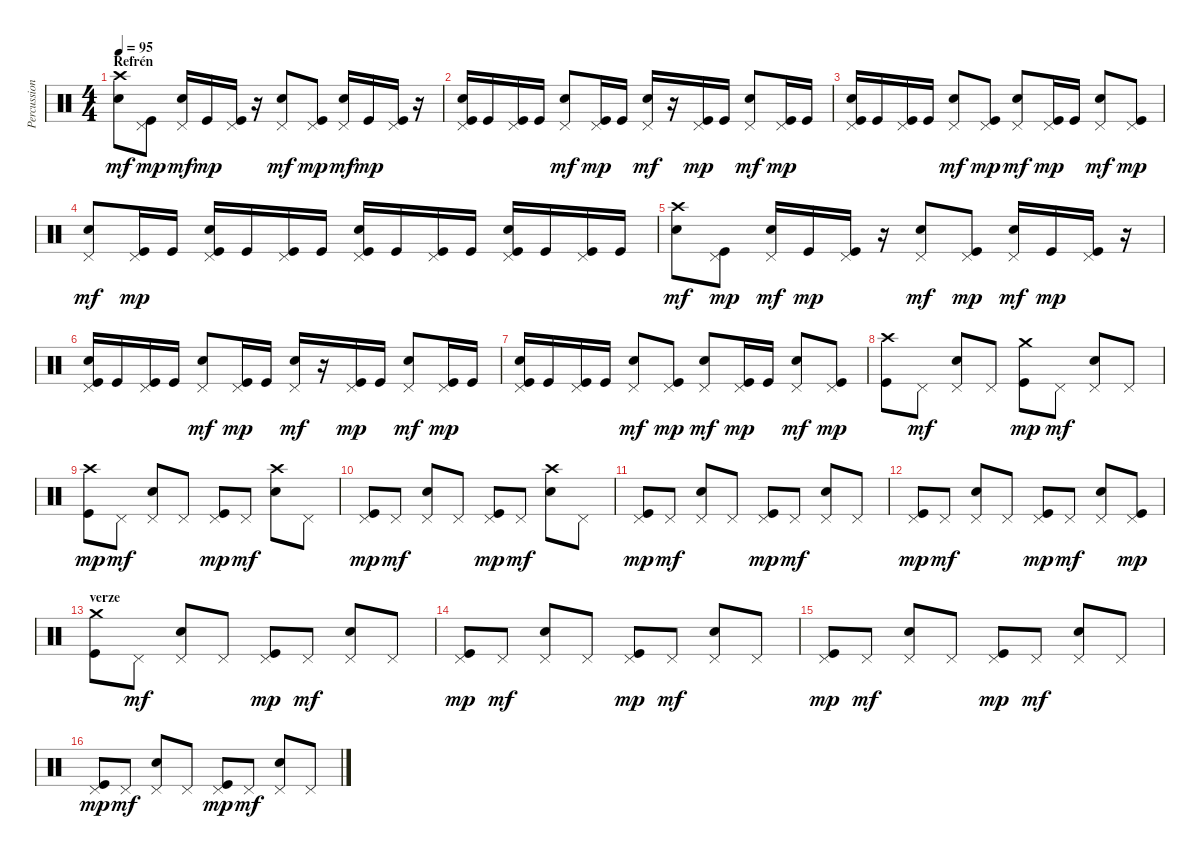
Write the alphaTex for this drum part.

\track ("Percussion" "Percussion") {instrument percussion}
\staff {score}
\articulation defaults
\ts (4 4)
\section ("" "Refrén")
\tempo 95
\clef neutral
\ks c
("Crash high (hit)" "Electric Snare (hit)").8{dy mf} ("Pedal Hi-Hat (hit)" "Kick (hit)").8{dy mp} ("Pedal Hi-Hat (hit)" "Electric Snare (hit)").16{dy mf} "Kick (hit)".16{dy mp} ("Pedal Hi-Hat (hit)" "Kick (hit)").16 r.16 ("Pedal Hi-Hat (hit)" "Electric Snare (hit)").8{dy mf} ("Pedal Hi-Hat (hit)" "Kick (hit)").8{dy mp} ("Pedal Hi-Hat (hit)" "Electric Snare (hit)").16{dy mf} "Kick (hit)".16{dy mp} ("Pedal Hi-Hat (hit)" "Kick (hit)").16 r.16 |
("Pedal Hi-Hat (hit)" "Kick (hit)" "Electric Snare (hit)").16 "Kick (hit)".16 ("Pedal Hi-Hat (hit)" "Kick (hit)").16 "Kick (hit)".16 ("Pedal Hi-Hat (hit)" "Electric Snare (hit)").8{dy mf} ("Pedal Hi-Hat (hit)" "Kick (hit)").16{dy mp} "Kick (hit)".16 ("Pedal Hi-Hat (hit)" "Electric Snare (hit)").16{dy mf} r.16 ("Pedal Hi-Hat (hit)" "Kick (hit)").16{dy mp} "Kick (hit)".16 ("Pedal Hi-Hat (hit)" "Electric Snare (hit)").8{dy mf} ("Pedal Hi-Hat (hit)" "Kick (hit)").16{dy mp} "Kick (hit)".16 |
("Pedal Hi-Hat (hit)" "Kick (hit)" "Electric Snare (hit)").16 "Kick (hit)".16 ("Pedal Hi-Hat (hit)" "Kick (hit)").16 "Kick (hit)".16 ("Pedal Hi-Hat (hit)" "Electric Snare (hit)").8{dy mf} ("Pedal Hi-Hat (hit)" "Kick (hit)").8{dy mp} ("Pedal Hi-Hat (hit)" "Electric Snare (hit)").8{dy mf} ("Pedal Hi-Hat (hit)" "Kick (hit)").16{dy mp} "Kick (hit)".16 ("Pedal Hi-Hat (hit)" "Electric Snare (hit)").8{dy mf} ("Pedal Hi-Hat (hit)" "Kick (hit)").8{dy mp} |
("Pedal Hi-Hat (hit)" "Electric Snare (hit)").8{dy mf} ("Pedal Hi-Hat (hit)" "Kick (hit)").16{dy mp} "Kick (hit)".16 ("Pedal Hi-Hat (hit)" "Kick (hit)" "Electric Snare (hit)").16 "Kick (hit)".16 ("Pedal Hi-Hat (hit)" "Kick (hit)").16 "Kick (hit)".16 ("Pedal Hi-Hat (hit)" "Kick (hit)" "Electric Snare (hit)").16 "Kick (hit)".16 ("Pedal Hi-Hat (hit)" "Kick (hit)").16 "Kick (hit)".16 ("Pedal Hi-Hat (hit)" "Kick (hit)" "Electric Snare (hit)").16 "Kick (hit)".16 ("Pedal Hi-Hat (hit)" "Kick (hit)").16 "Kick (hit)".16 |
("Crash high (hit)" "Electric Snare (hit)").8{dy mf} ("Pedal Hi-Hat (hit)" "Kick (hit)").8{dy mp} ("Pedal Hi-Hat (hit)" "Electric Snare (hit)").16{dy mf} "Kick (hit)".16{dy mp} ("Pedal Hi-Hat (hit)" "Kick (hit)").16 r.16 ("Pedal Hi-Hat (hit)" "Electric Snare (hit)").8{dy mf} ("Pedal Hi-Hat (hit)" "Kick (hit)").8{dy mp} ("Pedal Hi-Hat (hit)" "Electric Snare (hit)").16{dy mf} "Kick (hit)".16{dy mp} ("Pedal Hi-Hat (hit)" "Kick (hit)").16 r.16 |
("Pedal Hi-Hat (hit)" "Kick (hit)" "Electric Snare (hit)").16 "Kick (hit)".16 ("Pedal Hi-Hat (hit)" "Kick (hit)").16 "Kick (hit)".16 ("Pedal Hi-Hat (hit)" "Electric Snare (hit)").8{dy mf} ("Pedal Hi-Hat (hit)" "Kick (hit)").16{dy mp} "Kick (hit)".16 ("Pedal Hi-Hat (hit)" "Electric Snare (hit)").16{dy mf} r.16 ("Pedal Hi-Hat (hit)" "Kick (hit)").16{dy mp} "Kick (hit)".16 ("Pedal Hi-Hat (hit)" "Electric Snare (hit)").8{dy mf} ("Pedal Hi-Hat (hit)" "Kick (hit)").16{dy mp} "Kick (hit)".16 |
("Pedal Hi-Hat (hit)" "Kick (hit)" "Electric Snare (hit)").16 "Kick (hit)".16 ("Pedal Hi-Hat (hit)" "Kick (hit)").16 "Kick (hit)".16 ("Pedal Hi-Hat (hit)" "Electric Snare (hit)").8{dy mf} ("Pedal Hi-Hat (hit)" "Kick (hit)").8{dy mp} ("Pedal Hi-Hat (hit)" "Electric Snare (hit)").8{dy mf} ("Pedal Hi-Hat (hit)" "Kick (hit)").16{dy mp} "Kick (hit)".16 ("Pedal Hi-Hat (hit)" "Electric Snare (hit)").8{dy mf} ("Pedal Hi-Hat (hit)" "Kick (hit)").8{dy mp} |
("Crash high (hit)" "Kick (hit)").8 "Pedal Hi-Hat (hit)".8{dy mf} ("Pedal Hi-Hat (hit)" "Electric Snare (hit)").8 "Pedal Hi-Hat (hit)".8 ("Crash medium (hit)" "Kick (hit)").8{dy mp} "Pedal Hi-Hat (hit)".8{dy mf} ("Pedal Hi-Hat (hit)" "Electric Snare (hit)").8 "Pedal Hi-Hat (hit)".8 |
("Crash high (hit)" "Kick (hit)").8{dy mp} "Pedal Hi-Hat (hit)".8{dy mf} ("Pedal Hi-Hat (hit)" "Electric Snare (hit)").8 "Pedal Hi-Hat (hit)".8 ("Pedal Hi-Hat (hit)" "Kick (hit)").8{dy mp} "Pedal Hi-Hat (hit)".8{dy mf} ("Crash high (hit)" "Electric Snare (hit)").8 "Pedal Hi-Hat (hit)".8 |
("Pedal Hi-Hat (hit)" "Kick (hit)").8{dy mp} "Pedal Hi-Hat (hit)".8{dy mf} ("Pedal Hi-Hat (hit)" "Electric Snare (hit)").8 "Pedal Hi-Hat (hit)".8 ("Pedal Hi-Hat (hit)" "Kick (hit)").8{dy mp} "Pedal Hi-Hat (hit)".8{dy mf} ("Crash high (hit)" "Electric Snare (hit)").8 "Pedal Hi-Hat (hit)".8 |
("Pedal Hi-Hat (hit)" "Kick (hit)").8{dy mp} "Pedal Hi-Hat (hit)".8{dy mf} ("Pedal Hi-Hat (hit)" "Electric Snare (hit)").8 "Pedal Hi-Hat (hit)".8 ("Pedal Hi-Hat (hit)" "Kick (hit)").8{dy mp} "Pedal Hi-Hat (hit)".8{dy mf} ("Pedal Hi-Hat (hit)" "Electric Snare (hit)").8 "Pedal Hi-Hat (hit)".8 |
("Pedal Hi-Hat (hit)" "Kick (hit)").8{dy mp} "Pedal Hi-Hat (hit)".8{dy mf} ("Pedal Hi-Hat (hit)" "Electric Snare (hit)").8 "Pedal Hi-Hat (hit)".8 ("Pedal Hi-Hat (hit)" "Kick (hit)").8{dy mp} "Pedal Hi-Hat (hit)".8{dy mf} ("Pedal Hi-Hat (hit)" "Electric Snare (hit)").8 ("Pedal Hi-Hat (hit)" "Kick (hit)").8{dy mp} |
\section ("" "verze")
("Crash medium (hit)" "Kick (hit)").8 "Pedal Hi-Hat (hit)".8{dy mf} ("Pedal Hi-Hat (hit)" "Electric Snare (hit)").8 "Pedal Hi-Hat (hit)".8 ("Pedal Hi-Hat (hit)" "Kick (hit)").8{dy mp} "Pedal Hi-Hat (hit)".8{dy mf} ("Pedal Hi-Hat (hit)" "Electric Snare (hit)").8 "Pedal Hi-Hat (hit)".8 |
("Pedal Hi-Hat (hit)" "Kick (hit)").8{dy mp} "Pedal Hi-Hat (hit)".8{dy mf} ("Pedal Hi-Hat (hit)" "Electric Snare (hit)").8 "Pedal Hi-Hat (hit)".8 ("Pedal Hi-Hat (hit)" "Kick (hit)").8{dy mp} "Pedal Hi-Hat (hit)".8{dy mf} ("Pedal Hi-Hat (hit)" "Electric Snare (hit)").8 "Pedal Hi-Hat (hit)".8 |
("Pedal Hi-Hat (hit)" "Kick (hit)").8{dy mp} "Pedal Hi-Hat (hit)".8{dy mf} ("Pedal Hi-Hat (hit)" "Electric Snare (hit)").8 "Pedal Hi-Hat (hit)".8 ("Pedal Hi-Hat (hit)" "Kick (hit)").8{dy mp} "Pedal Hi-Hat (hit)".8{dy mf} ("Pedal Hi-Hat (hit)" "Electric Snare (hit)").8 "Pedal Hi-Hat (hit)".8 |
("Pedal Hi-Hat (hit)" "Kick (hit)").8{dy mp} "Pedal Hi-Hat (hit)".8{dy mf} ("Pedal Hi-Hat (hit)" "Electric Snare (hit)").8 "Pedal Hi-Hat (hit)".8 ("Pedal Hi-Hat (hit)" "Kick (hit)").8{dy mp} "Pedal Hi-Hat (hit)".8{dy mf} ("Pedal Hi-Hat (hit)" "Electric Snare (hit)").8 "Pedal Hi-Hat (hit)".8
